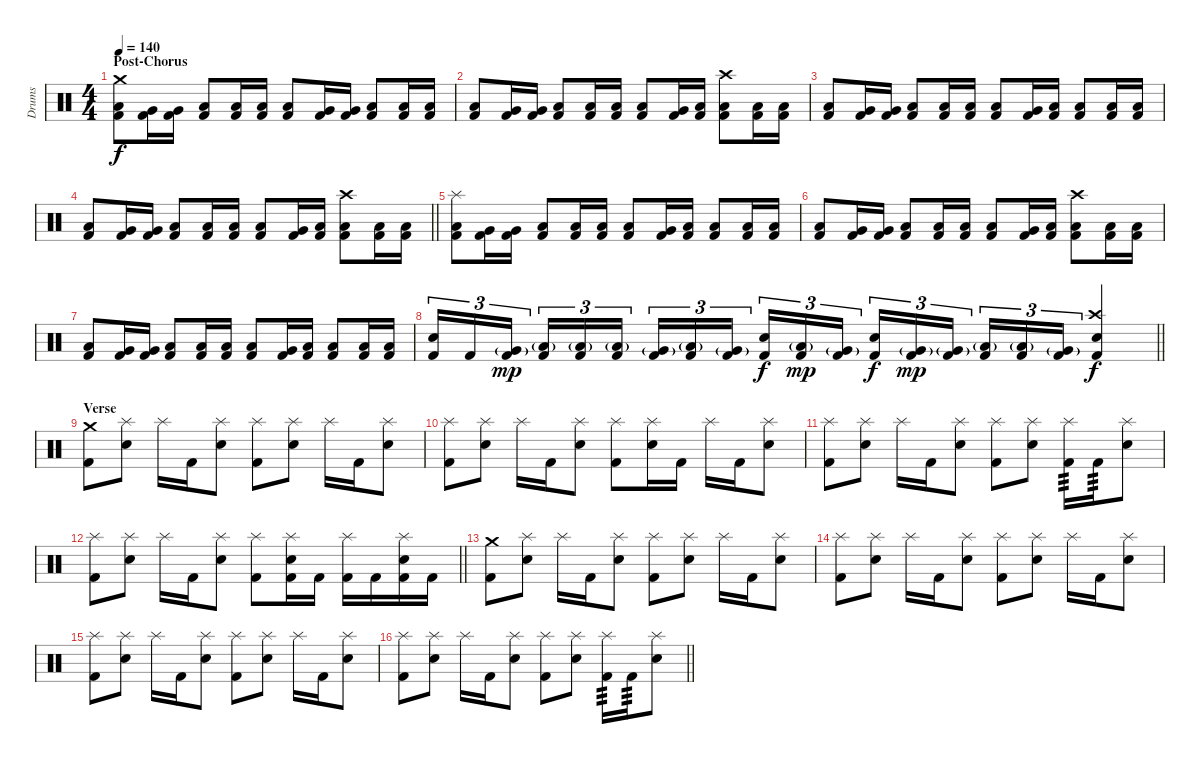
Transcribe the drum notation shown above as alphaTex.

\track ("Drums" "Drums") {instrument percussion}
\staff {score}
\articulation defaults
\ts (4 4)
\section ("" "Post-Chorus")
\tempo 140
\clef neutral
\ks c
("Kick (hit) 2" "Low Tom (hit)" "Crash medium (hit)").8{dy f} ("Kick (hit) 2" "Very Low Tom (hit)").16 ("Kick (hit) 2" "Very Low Tom (hit)").16 ("Kick (hit) 2" "Low Floor Tom (hit)").8 ("Kick (hit) 2" "Low Floor Tom (hit)").16 ("Kick (hit) 2" "Low Floor Tom (hit)").16 ("Kick (hit) 2" "Low Tom (hit)").8 ("Kick (hit) 2" "Very Low Tom (hit)").16 ("Kick (hit) 2" "Very Low Tom (hit)").16 ("Kick (hit) 2" "Low Floor Tom (hit)").8 ("Kick (hit) 2" "Low Floor Tom (hit)").16 ("Kick (hit) 2" "Low Floor Tom (hit)").16 |
("Kick (hit) 2" "Low Tom (hit)").8 ("Kick (hit) 2" "Very Low Tom (hit)").16 ("Kick (hit) 2" "Very Low Tom (hit)").16 ("Kick (hit) 2" "Low Floor Tom (hit)").8 ("Kick (hit) 2" "Low Floor Tom (hit)").16 ("Kick (hit) 2" "Low Floor Tom (hit)").16 ("Kick (hit) 2" "Low Tom (hit)").8 ("Kick (hit) 2" "Very Low Tom (hit)").16 ("Kick (hit) 2" "Low Floor Tom (hit)").16 ("Kick (hit) 2" "Low Floor Tom (hit)" "Crash high (hit)").8 ("Kick (hit) 2" "Low Floor Tom (hit)").16 ("Kick (hit) 2" "Low Floor Tom (hit)").16 |
("Kick (hit) 2" "Low Tom (hit)").8 ("Kick (hit) 2" "Very Low Tom (hit)").16 ("Kick (hit) 2" "Very Low Tom (hit)").16 ("Kick (hit) 2" "Low Floor Tom (hit)").8 ("Kick (hit) 2" "Low Floor Tom (hit)").16 ("Kick (hit) 2" "Low Floor Tom (hit)").16 ("Kick (hit) 2" "Low Tom (hit)").8 ("Kick (hit) 2" "Very Low Tom (hit)").16 ("Kick (hit) 2" "Low Floor Tom (hit)").16 ("Kick (hit) 2" "Low Floor Tom (hit)").8 ("Kick (hit) 2" "Low Floor Tom (hit)").16 ("Kick (hit) 2" "Low Floor Tom (hit)").16 |
\barLineRight lightlight
("Kick (hit) 2" "Low Tom (hit)").8 ("Kick (hit) 2" "Very Low Tom (hit)").16 ("Kick (hit) 2" "Very Low Tom (hit)").16 ("Kick (hit) 2" "Low Floor Tom (hit)").8 ("Kick (hit) 2" "Low Floor Tom (hit)").16 ("Kick (hit) 2" "Low Floor Tom (hit)").16 ("Kick (hit) 2" "Low Tom (hit)").8 ("Kick (hit) 2" "Very Low Tom (hit)").16 ("Kick (hit) 2" "Low Floor Tom (hit)").16 ("Kick (hit) 2" "Low Floor Tom (hit)" "Crash high (hit)").8 ("Kick (hit) 2" "Low Floor Tom (hit)").16 ("Kick (hit) 2" "Low Floor Tom (hit)").16 |
\section ("" "")
("Kick (hit) 2" "Low Tom (hit)" "Splash (hit)").8 ("Kick (hit) 2" "Very Low Tom (hit)").16 ("Kick (hit) 2" "Very Low Tom (hit)").16 ("Kick (hit) 2" "Low Floor Tom (hit)").8 ("Kick (hit) 2" "Low Floor Tom (hit)").16 ("Kick (hit) 2" "Low Floor Tom (hit)").16 ("Kick (hit) 2" "Low Tom (hit)").8 ("Kick (hit) 2" "Very Low Tom (hit)").16 ("Kick (hit) 2" "Low Floor Tom (hit)").16 ("Kick (hit) 2" "Low Floor Tom (hit)").8 ("Kick (hit) 2" "Low Floor Tom (hit)").16 ("Kick (hit) 2" "Low Floor Tom (hit)").16 |
("Kick (hit) 2" "Low Tom (hit)").8 ("Kick (hit) 2" "Very Low Tom (hit)").16 ("Kick (hit) 2" "Very Low Tom (hit)").16 ("Kick (hit) 2" "Low Floor Tom (hit)").8 ("Kick (hit) 2" "Low Floor Tom (hit)").16 ("Kick (hit) 2" "Low Floor Tom (hit)").16 ("Kick (hit) 2" "Low Tom (hit)").8 ("Kick (hit) 2" "Very Low Tom (hit)").16 ("Kick (hit) 2" "Low Floor Tom (hit)").16 ("Kick (hit) 2" "Low Floor Tom (hit)" "Crash high (hit)").8 ("Kick (hit) 2" "Low Floor Tom (hit)").16 ("Kick (hit) 2" "Low Floor Tom (hit)").16 |
("Kick (hit) 2" "Low Tom (hit)").8 ("Kick (hit) 2" "Very Low Tom (hit)").16 ("Kick (hit) 2" "Very Low Tom (hit)").16 ("Kick (hit) 2" "Low Floor Tom (hit)").8 ("Kick (hit) 2" "Low Floor Tom (hit)").16 ("Kick (hit) 2" "Low Floor Tom (hit)").16 ("Kick (hit) 2" "Low Tom (hit)").8 ("Kick (hit) 2" "Very Low Tom (hit)").16 ("Kick (hit) 2" "Low Floor Tom (hit)").16 ("Kick (hit) 2" "Low Floor Tom (hit)").8 ("Kick (hit) 2" "Low Floor Tom (hit)").16 ("Kick (hit) 2" "Low Floor Tom (hit)").16 |
\barLineRight lightlight
("Kick (hit) 2" "Snare (hit) 2").16{tu (3 2)} "Kick (hit) 2".16{tu (3 2)} ("Kick (hit) 2" "Very Low Tom (hit)"{g}).16{tu (3 2) dy mp beam splitsecondary} ("Kick (hit) 2" "Low Floor Tom (hit)"{g}).16{tu (3 2)} ("Kick (hit) 2" "Low Floor Tom (hit)"{g}).16{tu (3 2)} ("Kick (hit) 2" "Low Floor Tom (hit)"{g}).16{tu (3 2)} ("Kick (hit) 2" "Very Low Tom (hit)"{g}).16{tu (3 2)} ("Kick (hit) 2" "Low Floor Tom (hit)"{g}).16{tu (3 2)} ("Kick (hit) 2" "Very Low Tom (hit)"{g}).16{tu (3 2) beam splitsecondary} ("Kick (hit) 2" "Snare (hit) 2").16{tu (3 2) dy f} ("Kick (hit) 2" "Low Floor Tom (hit)"{g}).16{tu (3 2) dy mp} ("Kick (hit) 2" "Very Low Tom (hit)"{g}).16{tu (3 2)} ("Kick (hit) 2" "Snare (hit) 2").16{tu (3 2) dy f} ("Kick (hit) 2" "Very Low Tom (hit)"{g}).16{tu (3 2) dy mp} ("Kick (hit) 2" "Very Low Tom (hit)"{g}).16{tu (3 2) beam splitsecondary} ("Kick (hit) 2" "Low Floor Tom (hit)"{g}).16{tu (3 2)} ("Kick (hit) 2" "Low Floor Tom (hit)"{g}).16{tu (3 2)} ("Kick (hit) 2" "Very Low Tom (hit)"{g}).16{tu (3 2)} ("Kick (hit) 2" "Snare (hit) 2" "Crash high (hit)").4{dy f} |
\section ("" "Verse")
("Kick (hit) 2" "Crash medium (hit)").8 ("Snare (hit) 2" "Splash (hit)").8 "Splash (hit)".16 "Kick (hit) 2".16 ("Snare (hit) 2" "Splash (hit)").8 ("Kick (hit) 2" "Splash (hit)").8 ("Snare (hit) 2" "Splash (hit)").8 "Splash (hit)".16 "Kick (hit) 2".16 ("Snare (hit) 2" "Splash (hit)").8 |
("Kick (hit) 2" "Splash (hit)").8 ("Snare (hit) 2" "Splash (hit)").8 "Splash (hit)".16 "Kick (hit) 2".16 ("Snare (hit) 2" "Splash (hit)").8 ("Kick (hit) 2" "Splash (hit)").8 ("Snare (hit) 2" "Splash (hit)").16 "Kick (hit) 2".16 "Splash (hit)".16 "Kick (hit) 2".16 ("Snare (hit) 2" "Splash (hit)").8 |
("Kick (hit) 2" "Splash (hit)").8 ("Snare (hit) 2" "Splash (hit)").8 "Splash (hit)".16 "Kick (hit) 2".16 ("Snare (hit) 2" "Splash (hit)").8 ("Kick (hit) 2" "Splash (hit)").8 ("Snare (hit) 2" "Splash (hit)").8 ("Kick (hit) 2" "Splash (hit)").16{tp 3} "Kick (hit) 2".16{tp 3} ("Snare (hit) 2" "Splash (hit)").8 |
\barLineRight lightlight
("Kick (hit) 2" "Splash (hit)").8 ("Snare (hit) 2" "Splash (hit)").8 "Splash (hit)".16 "Kick (hit) 2".16 ("Snare (hit) 2" "Splash (hit)").8 ("Kick (hit) 2" "Splash (hit)").8 ("Kick (hit) 2" "Snare (hit) 2" "Splash (hit)").16 "Kick (hit) 2".16 ("Kick (hit) 2" "Splash (hit)").16 "Kick (hit) 2".16 ("Kick (hit) 2" "Snare (hit) 2" "Splash (hit)").16 "Kick (hit) 2".16 |
\section ("" "")
("Kick (hit) 2" "Crash medium (hit)").8 ("Snare (hit) 2" "Splash (hit)").8 "Splash (hit)".16 "Kick (hit) 2".16 ("Snare (hit) 2" "Splash (hit)").8 ("Kick (hit) 2" "Splash (hit)").8 ("Snare (hit) 2" "Splash (hit)").8 "Splash (hit)".16 "Kick (hit) 2".16 ("Snare (hit) 2" "Splash (hit)").8 |
("Kick (hit) 2" "Splash (hit)").8 ("Snare (hit) 2" "Splash (hit)").8 "Splash (hit)".16 "Kick (hit) 2".16 ("Snare (hit) 2" "Splash (hit)").8 ("Kick (hit) 2" "Splash (hit)").8 ("Snare (hit) 2" "Splash (hit)").8 "Splash (hit)".16 "Kick (hit) 2".16 ("Snare (hit) 2" "Splash (hit)").8 |
("Kick (hit) 2" "Splash (hit)").8 ("Snare (hit) 2" "Splash (hit)").8 "Splash (hit)".16 "Kick (hit) 2".16 ("Snare (hit) 2" "Splash (hit)").8 ("Kick (hit) 2" "Splash (hit)").8 ("Snare (hit) 2" "Splash (hit)").8 "Splash (hit)".16 "Kick (hit) 2".16 ("Snare (hit) 2" "Splash (hit)").8 |
\barLineRight lightlight
("Kick (hit) 2" "Splash (hit)").8 ("Snare (hit) 2" "Splash (hit)").8 "Splash (hit)".16 "Kick (hit) 2".16 ("Snare (hit) 2" "Splash (hit)").8 ("Kick (hit) 2" "Splash (hit)").8 ("Snare (hit) 2" "Splash (hit)").8 ("Kick (hit) 2" "Splash (hit)").16{tp 3} "Kick (hit) 2".16{tp 3} ("Snare (hit) 2" "Splash (hit)").8
